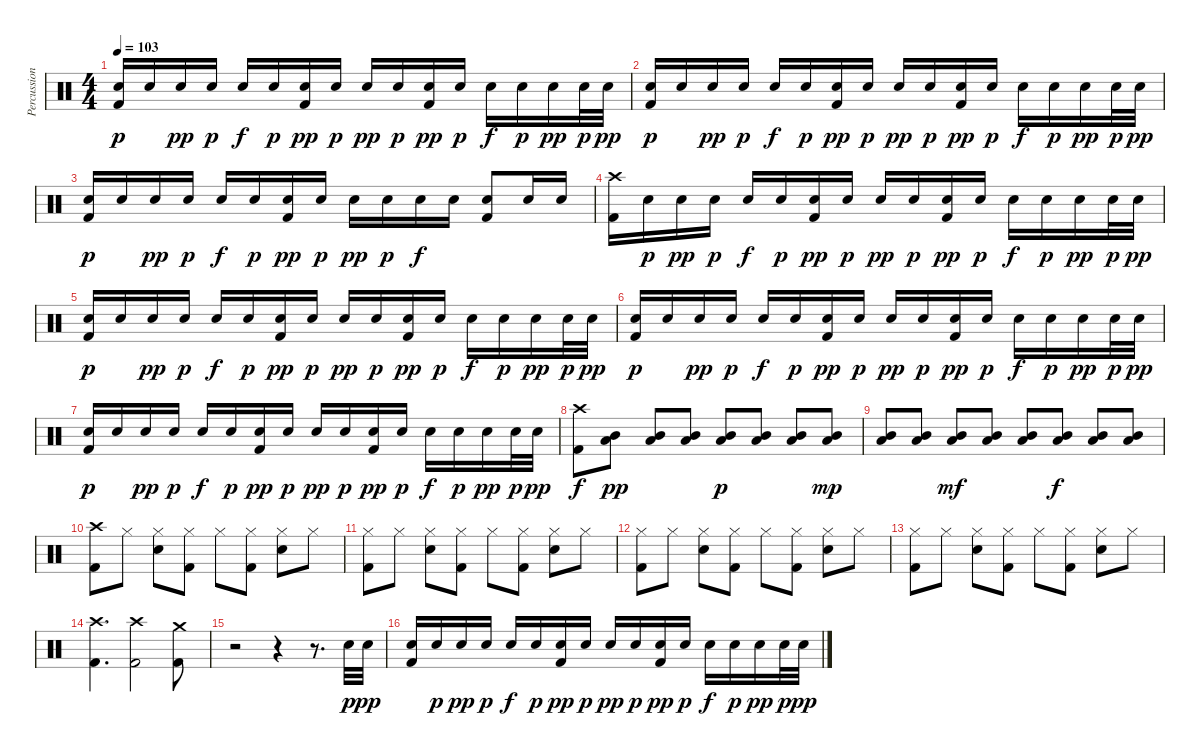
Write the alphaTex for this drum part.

\track ("Percussion" "Percussion") {instrument percussion}
\staff {score}
\articulation defaults
\ts (4 4)
\tempo 103
\clef neutral
\ks c
("Electric Snare (hit)" "Kick (hit) 2").16{dy p} "Electric Snare (hit)".16 "Electric Snare (hit)".16{dy pp} "Electric Snare (hit)".16{dy p} "Electric Snare (hit)".16{dy f} "Electric Snare (hit)".16{dy p} ("Electric Snare (hit)" "Kick (hit) 2").16{dy pp} "Electric Snare (hit)".16{dy p} "Electric Snare (hit)".16{dy pp} "Electric Snare (hit)".16{dy p} ("Electric Snare (hit)" "Kick (hit) 2").16{dy pp} "Electric Snare (hit)".16{dy p} "Electric Snare (hit)".16{dy f} "Electric Snare (hit)".16{dy p} "Electric Snare (hit)".16{dy pp} "Electric Snare (hit)".32{dy p} "Electric Snare (hit)".32{dy pp} |
("Electric Snare (hit)" "Kick (hit) 2").16{dy p} "Electric Snare (hit)".16 "Electric Snare (hit)".16{dy pp} "Electric Snare (hit)".16{dy p} "Electric Snare (hit)".16{dy f} "Electric Snare (hit)".16{dy p} ("Electric Snare (hit)" "Kick (hit) 2").16{dy pp} "Electric Snare (hit)".16{dy p} "Electric Snare (hit)".16{dy pp} "Electric Snare (hit)".16{dy p} ("Electric Snare (hit)" "Kick (hit) 2").16{dy pp} "Electric Snare (hit)".16{dy p} "Electric Snare (hit)".16{dy f} "Electric Snare (hit)".16{dy p} "Electric Snare (hit)".16{dy pp} "Electric Snare (hit)".32{dy p} "Electric Snare (hit)".32{dy pp} |
("Electric Snare (hit)" "Kick (hit) 2").16{dy p} "Electric Snare (hit)".16 "Electric Snare (hit)".16{dy pp} "Electric Snare (hit)".16{dy p} "Electric Snare (hit)".16{dy f} "Electric Snare (hit)".16{dy p} ("Electric Snare (hit)" "Kick (hit) 2").16{dy pp} "Electric Snare (hit)".16{dy p} "Electric Snare (hit)".16{dy pp} "Electric Snare (hit)".16{dy p} "Electric Snare (hit)".16{dy f} "Electric Snare (hit)".16 ("Electric Snare (hit)" "Kick (hit) 2").8 "Electric Snare (hit)".16 "Electric Snare (hit)".16 |
("Crash high (hit)" "Kick (hit) 2").16 "Electric Snare (hit)".16{dy p} "Electric Snare (hit)".16{dy pp} "Electric Snare (hit)".16{dy p} "Electric Snare (hit)".16{dy f} "Electric Snare (hit)".16{dy p} ("Electric Snare (hit)" "Kick (hit) 2").16{dy pp} "Electric Snare (hit)".16{dy p} "Electric Snare (hit)".16{dy pp} "Electric Snare (hit)".16{dy p} ("Electric Snare (hit)" "Kick (hit) 2").16{dy pp} "Electric Snare (hit)".16{dy p} "Electric Snare (hit)".16{dy f} "Electric Snare (hit)".16{dy p} "Electric Snare (hit)".16{dy pp} "Electric Snare (hit)".32{dy p} "Electric Snare (hit)".32{dy pp} |
("Electric Snare (hit)" "Kick (hit) 2").16{dy p} "Electric Snare (hit)".16 "Electric Snare (hit)".16{dy pp} "Electric Snare (hit)".16{dy p} "Electric Snare (hit)".16{dy f} "Electric Snare (hit)".16{dy p} ("Electric Snare (hit)" "Kick (hit) 2").16{dy pp} "Electric Snare (hit)".16{dy p} "Electric Snare (hit)".16{dy pp} "Electric Snare (hit)".16{dy p} ("Electric Snare (hit)" "Kick (hit) 2").16{dy pp} "Electric Snare (hit)".16{dy p} "Electric Snare (hit)".16{dy f} "Electric Snare (hit)".16{dy p} "Electric Snare (hit)".16{dy pp} "Electric Snare (hit)".32{dy p} "Electric Snare (hit)".32{dy pp} |
("Electric Snare (hit)" "Kick (hit) 2").16{dy p} "Electric Snare (hit)".16 "Electric Snare (hit)".16{dy pp} "Electric Snare (hit)".16{dy p} "Electric Snare (hit)".16{dy f} "Electric Snare (hit)".16{dy p} ("Electric Snare (hit)" "Kick (hit) 2").16{dy pp} "Electric Snare (hit)".16{dy p} "Electric Snare (hit)".16{dy pp} "Electric Snare (hit)".16{dy p} ("Electric Snare (hit)" "Kick (hit) 2").16{dy pp} "Electric Snare (hit)".16{dy p} "Electric Snare (hit)".16{dy f} "Electric Snare (hit)".16{dy p} "Electric Snare (hit)".16{dy pp} "Electric Snare (hit)".32{dy p} "Electric Snare (hit)".32{dy pp} |
("Electric Snare (hit)" "Kick (hit) 2").16{dy p} "Electric Snare (hit)".16 "Electric Snare (hit)".16{dy pp} "Electric Snare (hit)".16{dy p} "Electric Snare (hit)".16{dy f} "Electric Snare (hit)".16{dy p} ("Electric Snare (hit)" "Kick (hit) 2").16{dy pp} "Electric Snare (hit)".16{dy p} "Electric Snare (hit)".16{dy pp} "Electric Snare (hit)".16{dy p} ("Electric Snare (hit)" "Kick (hit) 2").16{dy pp} "Electric Snare (hit)".16{dy p} "Electric Snare (hit)".16{dy f} "Electric Snare (hit)".16{dy p} "Electric Snare (hit)".16{dy pp} "Electric Snare (hit)".32{dy p} "Electric Snare (hit)".32{dy pp} |
("Crash high (hit)" "Kick (hit) 2").8{dy f} ("Mid Tom (hit)" "Low Tom (hit)").8{dy pp} ("Mid Tom (hit)" "Low Tom (hit)").8 ("Mid Tom (hit)" "Low Tom (hit)").8 ("Mid Tom (hit)" "Low Tom (hit)").8{dy p} ("Mid Tom (hit)" "Low Tom (hit)").8 ("Mid Tom (hit)" "Low Tom (hit)").8 ("Mid Tom (hit)" "Low Tom (hit)").8{dy mp} |
("Mid Tom (hit)" "Low Tom (hit)").8 ("Mid Tom (hit)" "Low Tom (hit)").8 ("Mid Tom (hit)" "Low Tom (hit)").8{dy mf} ("Mid Tom (hit)" "Low Tom (hit)").8 ("Mid Tom (hit)" "Low Tom (hit)").8 ("Mid Tom (hit)" "Low Tom (hit)").8{dy f} ("Mid Tom (hit)" "Low Tom (hit)").8 ("Mid Tom (hit)" "Low Tom (hit)").8 |
("Crash high (hit)" "Kick (hit) 2").8 "Hi-Hat (closed)".8 ("Hi-Hat (closed)" "Electric Snare (hit)").8 ("Hi-Hat (closed)" "Kick (hit) 2").8 "Hi-Hat (closed)".8 ("Hi-Hat (closed)" "Kick (hit) 2").8 ("Hi-Hat (closed)" "Electric Snare (hit)").8 "Hi-Hat (closed)".8 |
("Hi-Hat (closed)" "Kick (hit) 2").8 "Hi-Hat (closed)".8 ("Hi-Hat (closed)" "Electric Snare (hit)").8 ("Hi-Hat (closed)" "Kick (hit) 2").8 "Hi-Hat (closed)".8 ("Hi-Hat (closed)" "Kick (hit) 2").8 ("Hi-Hat (closed)" "Electric Snare (hit)").8 "Hi-Hat (closed)".8 |
("Hi-Hat (closed)" "Kick (hit) 2").8 "Hi-Hat (closed)".8 ("Hi-Hat (closed)" "Electric Snare (hit)").8 ("Hi-Hat (closed)" "Kick (hit) 2").8 "Hi-Hat (closed)".8 ("Hi-Hat (closed)" "Kick (hit) 2").8 ("Hi-Hat (closed)" "Electric Snare (hit)").8 "Hi-Hat (closed)".8 |
("Hi-Hat (closed)" "Kick (hit) 2").8 "Hi-Hat (closed)".8 ("Hi-Hat (closed)" "Electric Snare (hit)").8 ("Hi-Hat (closed)" "Kick (hit) 2").8 "Hi-Hat (closed)".8 ("Hi-Hat (closed)" "Kick (hit) 2").8 ("Hi-Hat (closed)" "Electric Snare (hit)").8 "Hi-Hat (closed)".8 |
("Crash high (hit)" "Kick (hit) 2").4{d} ("Crash high (hit)" "Kick (hit) 2").2 ("Crash medium (hit)" "Kick (hit) 2").8 |
r.2 r.4 r.8{d} "Electric Snare (hit)".32{dy p} "Electric Snare (hit)".32{dy pp} |
("Electric Snare (hit)" "Kick (hit) 2").16 "Electric Snare (hit)".16{dy p} "Electric Snare (hit)".16{dy pp} "Electric Snare (hit)".16{dy p} "Electric Snare (hit)".16{dy f} "Electric Snare (hit)".16{dy p} ("Electric Snare (hit)" "Kick (hit) 2").16{dy pp} "Electric Snare (hit)".16{dy p} "Electric Snare (hit)".16{dy pp} "Electric Snare (hit)".16{dy p} ("Electric Snare (hit)" "Kick (hit) 2").16{dy pp} "Electric Snare (hit)".16{dy p} "Electric Snare (hit)".16{dy f} "Electric Snare (hit)".16{dy p} "Electric Snare (hit)".16{dy pp} "Electric Snare (hit)".32{dy p} "Electric Snare (hit)".32{dy pp}
